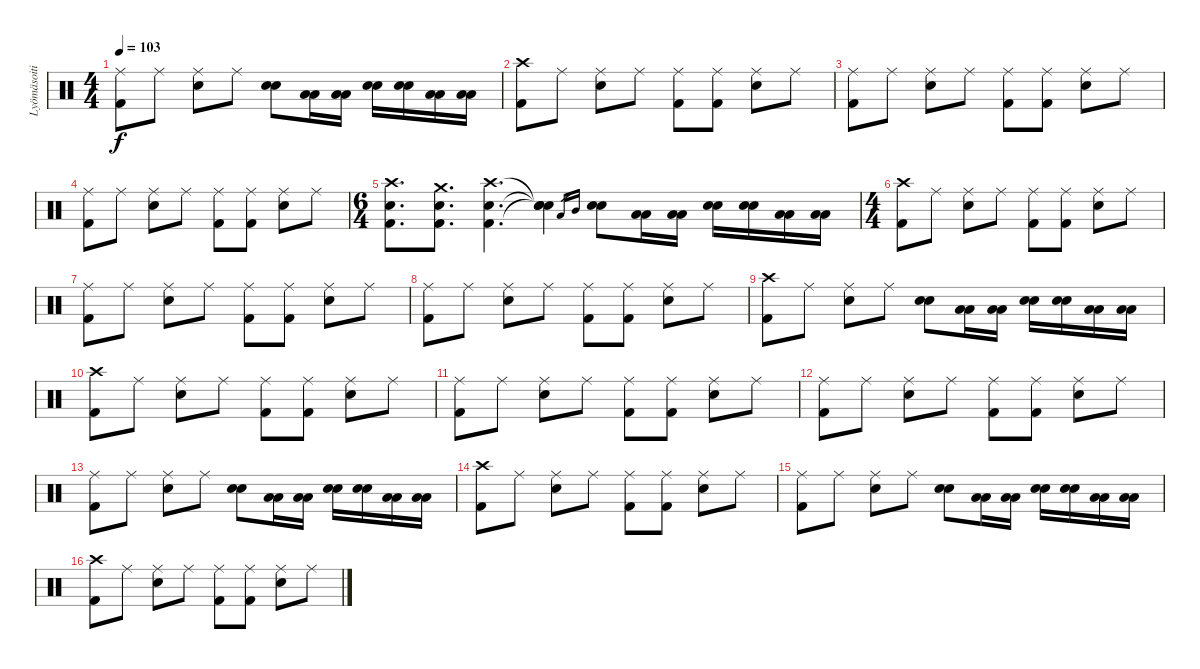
\track ("Lyömäsoitin" "Lyömäsoiti") {instrument percussion}
\staff {score}
\articulation defaults
\ts (4 4)
\tempo 103
\clef neutral
\ks c
("Ride (middle)" "Kick (hit) 2").8{dy f} "Ride (middle)".8 ("Ride (middle)" "Electric Snare (hit)").8 "Ride (middle)".8 ("Electric Snare (hit)" "Electric Snare (hit)").8 ("Low Tom (hit)" "Low Tom (hit)").16 ("Low Tom (hit)" "Low Tom (hit)").16 ("Electric Snare (hit)" "Electric Snare (hit)").16 ("Electric Snare (hit)" "Electric Snare (hit)").16 ("Low Tom (hit)" "Low Tom (hit)").16 ("Low Tom (hit)" "Low Tom (hit)").16 |
("Crash high (hit)" "Kick (hit) 2").8 "Ride (middle)".8 ("Ride (middle)" "Electric Snare (hit)").8 "Ride (middle)".8 ("Ride (middle)" "Kick (hit) 2").8 ("Ride (middle)" "Kick (hit) 2").8 ("Ride (middle)" "Electric Snare (hit)").8 "Ride (middle)".8 |
("Ride (middle)" "Kick (hit) 2").8 "Ride (middle)".8 ("Ride (middle)" "Electric Snare (hit)").8 "Ride (middle)".8 ("Ride (middle)" "Kick (hit) 2").8 ("Ride (middle)" "Kick (hit) 2").8 ("Ride (middle)" "Electric Snare (hit)").8 "Ride (middle)".8 |
("Ride (middle)" "Kick (hit) 2").8 "Ride (middle)".8 ("Ride (middle)" "Electric Snare (hit)").8 "Ride (middle)".8 ("Ride (middle)" "Kick (hit) 2").8 ("Ride (middle)" "Kick (hit) 2").8 ("Ride (middle)" "Electric Snare (hit)").8 "Ride (middle)".8 |
\ts (6 4)
("Crash high (hit)" "Electric Snare (hit)" "Kick (hit) 2").8{d} ("Crash medium (hit)" "Electric Snare (hit)" "Kick (hit) 2").8{d} ("Crash high (hit)" "Electric Snare (hit)" "Kick (hit) 2").4{d} ("Snare (hit)"{t} "Snare (hit)"{t} "Snare (hit)"{t}).4 "Low Tom (hit)".16{gr} "Mid Tom (hit)".16{gr} ("Electric Snare (hit)" "Electric Snare (hit)").8 ("Low Tom (hit)" "Low Tom (hit)").16 ("Low Tom (hit)" "Low Tom (hit)").16 ("Electric Snare (hit)" "Electric Snare (hit)").16 ("Electric Snare (hit)" "Electric Snare (hit)").16 ("Low Tom (hit)" "Low Tom (hit)").16 ("Low Tom (hit)" "Low Tom (hit)").16 |
\ts (4 4)
("Crash high (hit)" "Kick (hit) 2").8 "Ride (middle)".8 ("Ride (middle)" "Electric Snare (hit)").8 "Ride (middle)".8 ("Ride (middle)" "Kick (hit) 2").8 ("Ride (middle)" "Kick (hit) 2").8 ("Ride (middle)" "Electric Snare (hit)").8 "Ride (middle)".8 |
("Ride (middle)" "Kick (hit) 2").8 "Ride (middle)".8 ("Ride (middle)" "Electric Snare (hit)").8 "Ride (middle)".8 ("Ride (middle)" "Kick (hit) 2").8 ("Ride (middle)" "Kick (hit) 2").8 ("Ride (middle)" "Electric Snare (hit)").8 "Ride (middle)".8 |
("Ride (middle)" "Kick (hit) 2").8 "Ride (middle)".8 ("Ride (middle)" "Electric Snare (hit)").8 "Ride (middle)".8 ("Ride (middle)" "Kick (hit) 2").8 ("Ride (middle)" "Kick (hit) 2").8 ("Ride (middle)" "Electric Snare (hit)").8 "Ride (middle)".8 |
("Crash high (hit)" "Kick (hit) 2").8 "Ride (middle)".8 ("Ride (middle)" "Electric Snare (hit)").8 "Ride (middle)".8 ("Electric Snare (hit)" "Electric Snare (hit)").8 ("Low Tom (hit)" "Low Tom (hit)").16 ("Low Tom (hit)" "Low Tom (hit)").16 ("Electric Snare (hit)" "Electric Snare (hit)").16 ("Electric Snare (hit)" "Electric Snare (hit)").16 ("Low Tom (hit)" "Low Tom (hit)").16 ("Low Tom (hit)" "Low Tom (hit)").16 |
("Crash high (hit)" "Kick (hit) 2").8 "Ride (middle)".8 ("Ride (middle)" "Electric Snare (hit)").8 "Ride (middle)".8 ("Ride (middle)" "Kick (hit) 2").8 ("Ride (middle)" "Kick (hit) 2").8 ("Ride (middle)" "Electric Snare (hit)").8 "Ride (middle)".8 |
("Ride (middle)" "Kick (hit) 2").8 "Ride (middle)".8 ("Ride (middle)" "Electric Snare (hit)").8 "Ride (middle)".8 ("Ride (middle)" "Kick (hit) 2").8 ("Ride (middle)" "Kick (hit) 2").8 ("Ride (middle)" "Electric Snare (hit)").8 "Ride (middle)".8 |
("Ride (middle)" "Kick (hit) 2").8 "Ride (middle)".8 ("Ride (middle)" "Electric Snare (hit)").8 "Ride (middle)".8 ("Ride (middle)" "Kick (hit) 2").8 ("Ride (middle)" "Kick (hit) 2").8 ("Ride (middle)" "Electric Snare (hit)").8 "Ride (middle)".8 |
("Ride (middle)" "Kick (hit) 2").8 "Ride (middle)".8 ("Ride (middle)" "Electric Snare (hit)").8 "Ride (middle)".8 ("Electric Snare (hit)" "Electric Snare (hit)").8 ("Low Tom (hit)" "Low Tom (hit)").16 ("Low Tom (hit)" "Low Tom (hit)").16 ("Electric Snare (hit)" "Electric Snare (hit)").16 ("Electric Snare (hit)" "Electric Snare (hit)").16 ("Low Tom (hit)" "Low Tom (hit)").16 ("Low Tom (hit)" "Low Tom (hit)").16 |
("Crash high (hit)" "Kick (hit) 2").8 "Ride (middle)".8 ("Ride (middle)" "Electric Snare (hit)").8 "Ride (middle)".8 ("Ride (middle)" "Kick (hit) 2").8 ("Ride (middle)" "Kick (hit) 2").8 ("Ride (middle)" "Electric Snare (hit)").8 "Ride (middle)".8 |
("Ride (middle)" "Kick (hit) 2").8 "Ride (middle)".8 ("Ride (middle)" "Electric Snare (hit)").8 "Ride (middle)".8 ("Electric Snare (hit)" "Electric Snare (hit)").8 ("Low Tom (hit)" "Low Tom (hit)").16 ("Low Tom (hit)" "Low Tom (hit)").16 ("Electric Snare (hit)" "Electric Snare (hit)").16 ("Electric Snare (hit)" "Electric Snare (hit)").16 ("Low Tom (hit)" "Low Tom (hit)").16 ("Low Tom (hit)" "Low Tom (hit)").16 |
("Crash high (hit)" "Kick (hit) 2").8 "Ride (middle)".8 ("Ride (middle)" "Electric Snare (hit)").8 "Ride (middle)".8 ("Ride (middle)" "Kick (hit) 2").8 ("Ride (middle)" "Kick (hit) 2").8 ("Ride (middle)" "Electric Snare (hit)").8 "Ride (middle)".8
